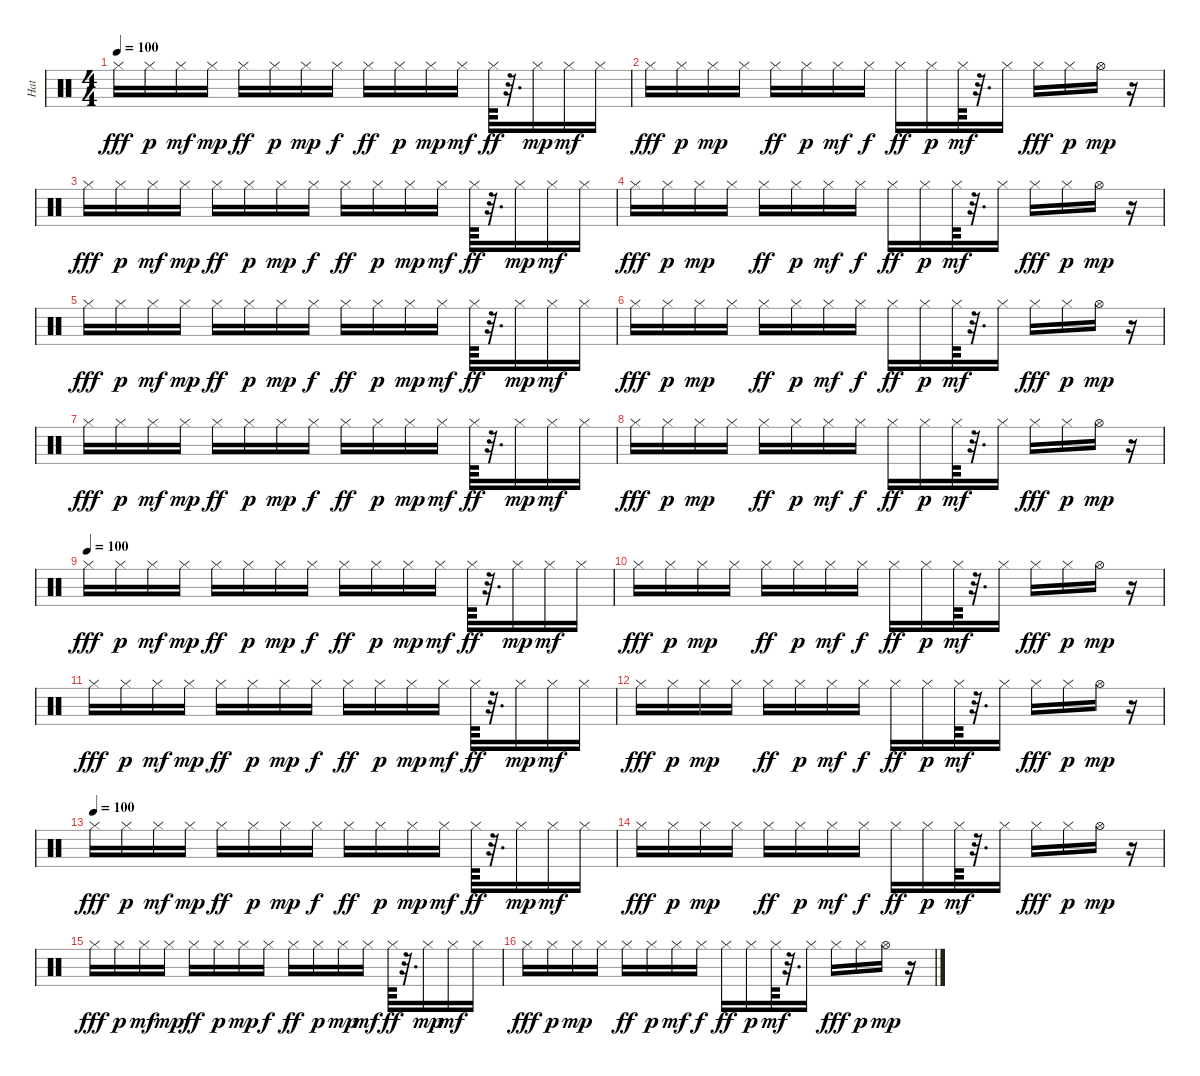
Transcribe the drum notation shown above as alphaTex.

\track ("Hat" "Hat") {instrument percussion}
\staff {score}
\articulation defaults
\ts (4 4)
\tempo 100
\clef neutral
\ks c "Hi-Hat (closed)".16{dy fff} "Hi-Hat (closed)".16{dy p} "Hi-Hat (closed)".16{dy mf} "Hi-Hat (closed)".16{dy mp} "Hi-Hat (closed)".16{dy ff} "Hi-Hat (closed)".16{dy p} "Hi-Hat (closed)".16{dy mp} "Hi-Hat (closed)".16{dy f} "Hi-Hat (closed)".16{dy ff} "Hi-Hat (closed)".16{dy p} "Hi-Hat (closed)".16{dy mp} "Hi-Hat (closed)".16{dy mf} "Hi-Hat (closed)".64{dy ff}
r.32{d} "Hi-Hat (closed)".16{dy mp} "Hi-Hat (closed)".16{dy mf} "Hi-Hat (closed)".16 |
"Hi-Hat (closed)".16{dy fff} "Hi-Hat (closed)".16{dy p} "Hi-Hat (closed)".16{dy mp} "Hi-Hat (closed)".16 "Hi-Hat (closed)".16{dy ff} "Hi-Hat (closed)".16{dy p} "Hi-Hat (closed)".16{dy mf} "Hi-Hat (closed)".16{dy f} "Hi-Hat (closed)".16{dy ff} "Hi-Hat (closed)".16{dy p} "Hi-Hat (closed)".64{dy mf} r.32{d} "Hi-Hat (closed)".16 "Hi-Hat (closed)".16{dy fff} "Hi-Hat (closed)".16{dy p} "Hi-Hat (open)".16{dy mp} r.16 |
"Hi-Hat (closed)".16{dy fff} "Hi-Hat (closed)".16{dy p} "Hi-Hat (closed)".16{dy mf} "Hi-Hat (closed)".16{dy mp} "Hi-Hat (closed)".16{dy ff} "Hi-Hat (closed)".16{dy p} "Hi-Hat (closed)".16{dy mp} "Hi-Hat (closed)".16{dy f} "Hi-Hat (closed)".16{dy ff} "Hi-Hat (closed)".16{dy p} "Hi-Hat (closed)".16{dy mp} "Hi-Hat (closed)".16{dy mf} "Hi-Hat (closed)".64{dy ff} r.32{d} "Hi-Hat (closed)".16{dy mp} "Hi-Hat (closed)".16{dy mf} "Hi-Hat (closed)".16 |
"Hi-Hat (closed)".16{dy fff} "Hi-Hat (closed)".16{dy p} "Hi-Hat (closed)".16{dy mp} "Hi-Hat (closed)".16 "Hi-Hat (closed)".16{dy ff} "Hi-Hat (closed)".16{dy p} "Hi-Hat (closed)".16{dy mf} "Hi-Hat (closed)".16{dy f} "Hi-Hat (closed)".16{dy ff} "Hi-Hat (closed)".16{dy p} "Hi-Hat (closed)".64{dy mf} r.32{d} "Hi-Hat (closed)".16 "Hi-Hat (closed)".16{dy fff} "Hi-Hat (closed)".16{dy p} "Hi-Hat (open)".16{dy mp} r.16 |
"Hi-Hat (closed)".16{dy fff} "Hi-Hat (closed)".16{dy p} "Hi-Hat (closed)".16{dy mf} "Hi-Hat (closed)".16{dy mp} "Hi-Hat (closed)".16{dy ff} "Hi-Hat (closed)".16{dy p} "Hi-Hat (closed)".16{dy mp} "Hi-Hat (closed)".16{dy f} "Hi-Hat (closed)".16{dy ff} "Hi-Hat (closed)".16{dy p} "Hi-Hat (closed)".16{dy mp} "Hi-Hat (closed)".16{dy mf} "Hi-Hat (closed)".64{dy ff} r.32{d} "Hi-Hat (closed)".16{dy mp} "Hi-Hat (closed)".16{dy mf} "Hi-Hat (closed)".16 |
"Hi-Hat (closed)".16{dy fff} "Hi-Hat (closed)".16{dy p} "Hi-Hat (closed)".16{dy mp} "Hi-Hat (closed)".16 "Hi-Hat (closed)".16{dy ff} "Hi-Hat (closed)".16{dy p} "Hi-Hat (closed)".16{dy mf} "Hi-Hat (closed)".16{dy f} "Hi-Hat (closed)".16{dy ff} "Hi-Hat (closed)".16{dy p} "Hi-Hat (closed)".64{dy mf} r.32{d} "Hi-Hat (closed)".16 "Hi-Hat (closed)".16{dy fff} "Hi-Hat (closed)".16{dy p} "Hi-Hat (open)".16{dy mp} r.16 |
"Hi-Hat (closed)".16{dy fff} "Hi-Hat (closed)".16{dy p} "Hi-Hat (closed)".16{dy mf} "Hi-Hat (closed)".16{dy mp} "Hi-Hat (closed)".16{dy ff} "Hi-Hat (closed)".16{dy p} "Hi-Hat (closed)".16{dy mp} "Hi-Hat (closed)".16{dy f} "Hi-Hat (closed)".16{dy ff} "Hi-Hat (closed)".16{dy p} "Hi-Hat (closed)".16{dy mp} "Hi-Hat (closed)".16{dy mf} "Hi-Hat (closed)".64{dy ff} r.32{d} "Hi-Hat (closed)".16{dy mp} "Hi-Hat (closed)".16{dy mf} "Hi-Hat (closed)".16 |
"Hi-Hat (closed)".16{dy fff} "Hi-Hat (closed)".16{dy p} "Hi-Hat (closed)".16{dy mp} "Hi-Hat (closed)".16 "Hi-Hat (closed)".16{dy ff} "Hi-Hat (closed)".16{dy p} "Hi-Hat (closed)".16{dy mf} "Hi-Hat (closed)".16{dy f} "Hi-Hat (closed)".16{dy ff} "Hi-Hat (closed)".16{dy p} "Hi-Hat (closed)".64{dy mf} r.32{d} "Hi-Hat (closed)".16 "Hi-Hat (closed)".16{dy fff} "Hi-Hat (closed)".16{dy p} "Hi-Hat (open)".16{dy mp} r.16 |
\tempo (100)
"Hi-Hat (closed)".16{dy fff} "Hi-Hat (closed)".16{dy p} "Hi-Hat (closed)".16{dy mf} "Hi-Hat (closed)".16{dy mp} "Hi-Hat (closed)".16{dy ff} "Hi-Hat (closed)".16{dy p} "Hi-Hat (closed)".16{dy mp} "Hi-Hat (closed)".16{dy f} "Hi-Hat (closed)".16{dy ff} "Hi-Hat (closed)".16{dy p} "Hi-Hat (closed)".16{dy mp} "Hi-Hat (closed)".16{dy mf} "Hi-Hat (closed)".64{dy ff} r.32{d} "Hi-Hat (closed)".16{dy mp} "Hi-Hat (closed)".16{dy mf} "Hi-Hat (closed)".16 |
"Hi-Hat (closed)".16{dy fff} "Hi-Hat (closed)".16{dy p} "Hi-Hat (closed)".16{dy mp} "Hi-Hat (closed)".16 "Hi-Hat (closed)".16{dy ff} "Hi-Hat (closed)".16{dy p} "Hi-Hat (closed)".16{dy mf} "Hi-Hat (closed)".16{dy f} "Hi-Hat (closed)".16{dy ff} "Hi-Hat (closed)".16{dy p} "Hi-Hat (closed)".64{dy mf} r.32{d} "Hi-Hat (closed)".16 "Hi-Hat (closed)".16{dy fff} "Hi-Hat (closed)".16{dy p} "Hi-Hat (open)".16{dy mp} r.16 |
"Hi-Hat (closed)".16{dy fff} "Hi-Hat (closed)".16{dy p} "Hi-Hat (closed)".16{dy mf} "Hi-Hat (closed)".16{dy mp} "Hi-Hat (closed)".16{dy ff} "Hi-Hat (closed)".16{dy p} "Hi-Hat (closed)".16{dy mp} "Hi-Hat (closed)".16{dy f} "Hi-Hat (closed)".16{dy ff} "Hi-Hat (closed)".16{dy p} "Hi-Hat (closed)".16{dy mp} "Hi-Hat (closed)".16{dy mf} "Hi-Hat (closed)".64{dy ff} r.32{d} "Hi-Hat (closed)".16{dy mp} "Hi-Hat (closed)".16{dy mf} "Hi-Hat (closed)".16 |
"Hi-Hat (closed)".16{dy fff} "Hi-Hat (closed)".16{dy p} "Hi-Hat (closed)".16{dy mp} "Hi-Hat (closed)".16 "Hi-Hat (closed)".16{dy ff} "Hi-Hat (closed)".16{dy p} "Hi-Hat (closed)".16{dy mf} "Hi-Hat (closed)".16{dy f} "Hi-Hat (closed)".16{dy ff} "Hi-Hat (closed)".16{dy p} "Hi-Hat (closed)".64{dy mf} r.32{d} "Hi-Hat (closed)".16 "Hi-Hat (closed)".16{dy fff} "Hi-Hat (closed)".16{dy p} "Hi-Hat (open)".16{dy mp} r.16 |
\tempo (100)
"Hi-Hat (closed)".16{dy fff} "Hi-Hat (closed)".16{dy p} "Hi-Hat (closed)".16{dy mf} "Hi-Hat (closed)".16{dy mp} "Hi-Hat (closed)".16{dy ff} "Hi-Hat (closed)".16{dy p} "Hi-Hat (closed)".16{dy mp} "Hi-Hat (closed)".16{dy f} "Hi-Hat (closed)".16{dy ff} "Hi-Hat (closed)".16{dy p} "Hi-Hat (closed)".16{dy mp} "Hi-Hat (closed)".16{dy mf} "Hi-Hat (closed)".64{dy ff} r.32{d} "Hi-Hat (closed)".16{dy mp} "Hi-Hat (closed)".16{dy mf} "Hi-Hat (closed)".16 |
"Hi-Hat (closed)".16{dy fff} "Hi-Hat (closed)".16{dy p} "Hi-Hat (closed)".16{dy mp} "Hi-Hat (closed)".16 "Hi-Hat (closed)".16{dy ff} "Hi-Hat (closed)".16{dy p} "Hi-Hat (closed)".16{dy mf} "Hi-Hat (closed)".16{dy f} "Hi-Hat (closed)".16{dy ff} "Hi-Hat (closed)".16{dy p} "Hi-Hat (closed)".64{dy mf} r.32{d} "Hi-Hat (closed)".16 "Hi-Hat (closed)".16{dy fff} "Hi-Hat (closed)".16{dy p} "Hi-Hat (open)".16{dy mp} r.16 |
"Hi-Hat (closed)".16{dy fff} "Hi-Hat (closed)".16{dy p} "Hi-Hat (closed)".16{dy mf} "Hi-Hat (closed)".16{dy mp} "Hi-Hat (closed)".16{dy ff} "Hi-Hat (closed)".16{dy p} "Hi-Hat (closed)".16{dy mp} "Hi-Hat (closed)".16{dy f} "Hi-Hat (closed)".16{dy ff} "Hi-Hat (closed)".16{dy p} "Hi-Hat (closed)".16{dy mp} "Hi-Hat (closed)".16{dy mf} "Hi-Hat (closed)".64{dy ff} r.32{d} "Hi-Hat (closed)".16{dy mp} "Hi-Hat (closed)".16{dy mf} "Hi-Hat (closed)".16 |
"Hi-Hat (closed)".16{dy fff} "Hi-Hat (closed)".16{dy p} "Hi-Hat (closed)".16{dy mp} "Hi-Hat (closed)".16 "Hi-Hat (closed)".16{dy ff} "Hi-Hat (closed)".16{dy p} "Hi-Hat (closed)".16{dy mf} "Hi-Hat (closed)".16{dy f} "Hi-Hat (closed)".16{dy ff} "Hi-Hat (closed)".16{dy p} "Hi-Hat (closed)".64{dy mf} r.32{d} "Hi-Hat (closed)".16 "Hi-Hat (closed)".16{dy fff} "Hi-Hat (closed)".16{dy p} "Hi-Hat (open)".16{dy mp} r.16
